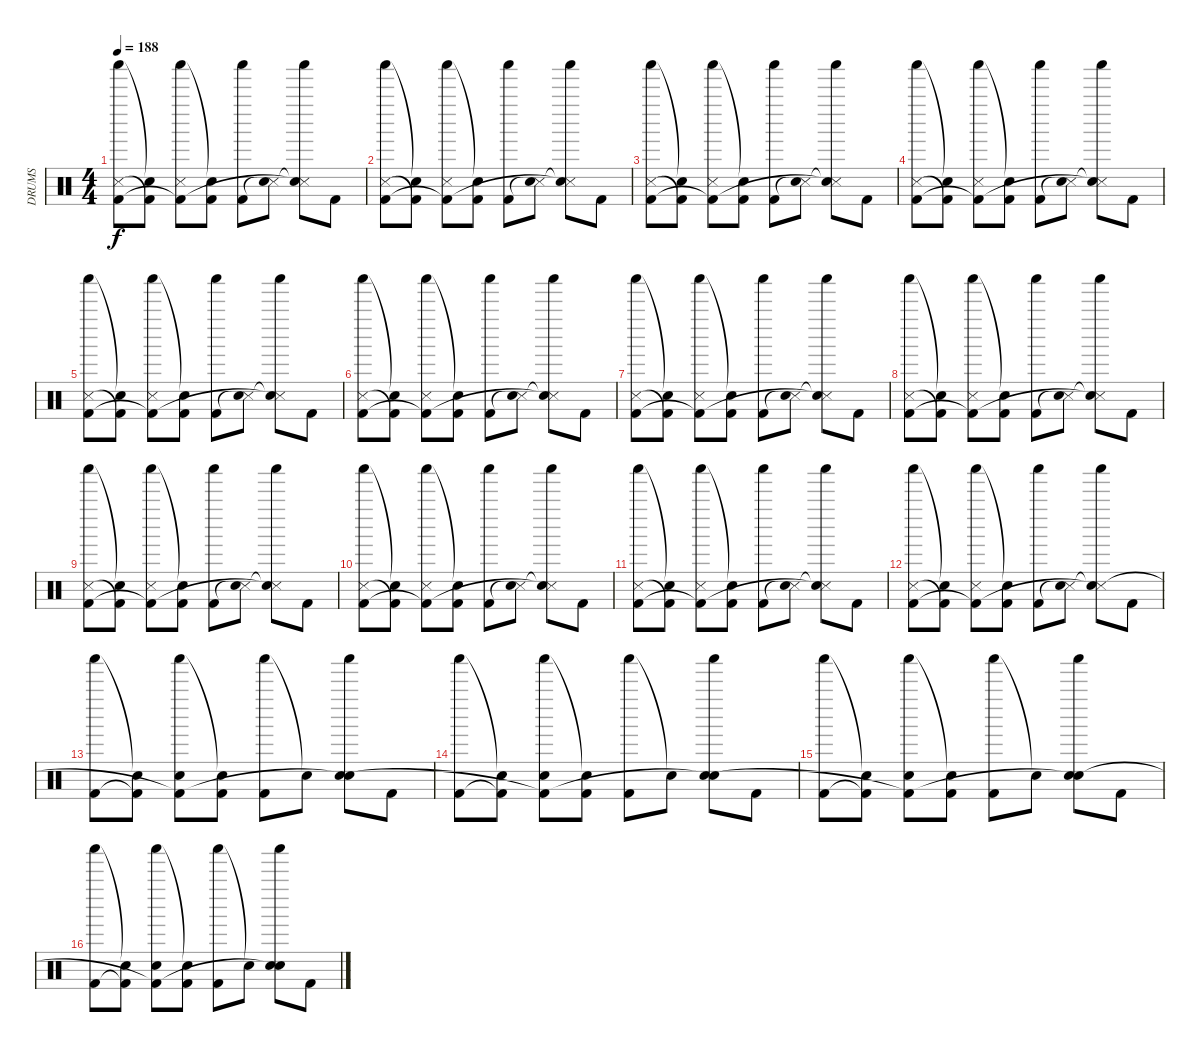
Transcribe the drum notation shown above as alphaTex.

\track ("DRUMS" "DRUMS") {instrument percussion}
\staff {score}
\articulation defaults
\ts (4 4)
\tempo 188
\clef neutral
\ks c
("Shaker (hit)" "Snare (side stick) 3" "Kick (hit) 2").8{dy f} ("Snare (hit)"{t} "Kick (hit) 2"{t}).8 ("Shaker (hit)" "Snare (side stick) 3" "Kick (hit) 2"{t}).8 ("Snare (hit)"{t} "Kick (hit) 2").8 ("Shaker (hit)" "Kick (hit) 2").8 ("Snare (side stick) 3" "Snare (hit)"{t}).8 ("Shaker (hit)" "Snare (side stick) 3"{t} "Snare (hit)"{t}).8 "Kick (hit) 2".8 |
("Shaker (hit)" "Snare (side stick) 3" "Kick (hit) 2").8 ("Snare (hit)"{t} "Kick (hit) 2"{t}).8 ("Shaker (hit)" "Snare (side stick) 3" "Kick (hit) 2"{t}).8 ("Snare (hit)"{t} "Kick (hit) 2").8 ("Shaker (hit)" "Kick (hit) 2").8 ("Snare (side stick) 3" "Snare (hit)"{t}).8 ("Shaker (hit)" "Snare (side stick) 3"{t} "Snare (hit)"{t}).8 "Kick (hit) 2".8 |
("Shaker (hit)" "Snare (side stick) 3" "Kick (hit) 2").8 ("Snare (hit)"{t} "Kick (hit) 2"{t}).8 ("Shaker (hit)" "Snare (side stick) 3" "Kick (hit) 2"{t}).8 ("Snare (hit)"{t} "Kick (hit) 2").8 ("Shaker (hit)" "Kick (hit) 2").8 ("Snare (side stick) 3" "Snare (hit)"{t}).8 ("Shaker (hit)" "Snare (side stick) 3"{t} "Snare (hit)"{t}).8 "Kick (hit) 2".8 |
("Shaker (hit)" "Snare (side stick) 3" "Kick (hit) 2").8 ("Snare (hit)"{t} "Kick (hit) 2"{t}).8 ("Shaker (hit)" "Snare (side stick) 3" "Kick (hit) 2"{t}).8 ("Snare (hit)"{t} "Kick (hit) 2").8 ("Shaker (hit)" "Kick (hit) 2").8 ("Snare (side stick) 3" "Snare (hit)"{t}).8 ("Shaker (hit)" "Snare (side stick) 3"{t} "Snare (hit)"{t}).8 "Kick (hit) 2".8 |
("Shaker (hit)" "Snare (side stick) 3" "Kick (hit) 2").8 ("Snare (hit)"{t} "Kick (hit) 2"{t}).8 ("Shaker (hit)" "Snare (side stick) 3" "Kick (hit) 2"{t}).8 ("Snare (hit)"{t} "Kick (hit) 2").8 ("Shaker (hit)" "Kick (hit) 2").8 ("Snare (side stick) 3" "Snare (hit)"{t}).8 ("Shaker (hit)" "Snare (side stick) 3"{t} "Snare (hit)"{t}).8 "Kick (hit) 2".8 |
("Shaker (hit)" "Snare (side stick) 3" "Kick (hit) 2").8 ("Snare (hit)"{t} "Kick (hit) 2"{t}).8 ("Shaker (hit)" "Snare (side stick) 3" "Kick (hit) 2"{t}).8 ("Snare (hit)"{t} "Kick (hit) 2").8 ("Shaker (hit)" "Kick (hit) 2").8 ("Snare (side stick) 3" "Snare (hit)"{t}).8 ("Shaker (hit)" "Snare (side stick) 3"{t} "Snare (hit)"{t}).8 "Kick (hit) 2".8 |
("Shaker (hit)" "Snare (side stick) 3" "Kick (hit) 2").8 ("Snare (hit)"{t} "Kick (hit) 2"{t}).8 ("Shaker (hit)" "Snare (side stick) 3" "Kick (hit) 2"{t}).8 ("Snare (hit)"{t} "Kick (hit) 2").8 ("Shaker (hit)" "Kick (hit) 2").8 ("Snare (side stick) 3" "Snare (hit)"{t}).8 ("Shaker (hit)" "Snare (side stick) 3"{t} "Snare (hit)"{t}).8 "Kick (hit) 2".8 |
("Shaker (hit)" "Snare (side stick) 3" "Kick (hit) 2").8 ("Snare (hit)"{t} "Kick (hit) 2"{t}).8 ("Shaker (hit)" "Snare (side stick) 3" "Kick (hit) 2"{t}).8 ("Snare (hit)"{t} "Kick (hit) 2").8 ("Shaker (hit)" "Kick (hit) 2").8 ("Snare (side stick) 3" "Snare (hit)"{t}).8 ("Shaker (hit)" "Snare (side stick) 3"{t} "Snare (hit)"{t}).8 "Kick (hit) 2".8 |
("Shaker (hit)" "Snare (side stick) 3" "Kick (hit) 2").8 ("Snare (hit)"{t} "Kick (hit) 2"{t}).8 ("Shaker (hit)" "Snare (side stick) 3" "Kick (hit) 2"{t}).8 ("Snare (hit)"{t} "Kick (hit) 2").8 ("Shaker (hit)" "Kick (hit) 2").8 ("Snare (side stick) 3" "Snare (hit)"{t}).8 ("Shaker (hit)" "Snare (side stick) 3"{t} "Snare (hit)"{t}).8 "Kick (hit) 2".8 |
("Shaker (hit)" "Snare (side stick) 3" "Kick (hit) 2").8 ("Snare (hit)"{t} "Kick (hit) 2"{t}).8 ("Shaker (hit)" "Snare (side stick) 3" "Kick (hit) 2"{t}).8 ("Snare (hit)"{t} "Kick (hit) 2").8 ("Shaker (hit)" "Kick (hit) 2").8 ("Snare (side stick) 3" "Snare (hit)"{t}).8 ("Shaker (hit)" "Snare (side stick) 3"{t} "Snare (hit)"{t}).8 "Kick (hit) 2".8 |
("Shaker (hit)" "Snare (side stick) 3" "Kick (hit) 2").8 ("Snare (hit)"{t} "Kick (hit) 2"{t}).8 ("Shaker (hit)" "Snare (side stick) 3" "Kick (hit) 2"{t}).8 ("Snare (hit)"{t} "Kick (hit) 2").8 ("Shaker (hit)" "Kick (hit) 2").8 ("Snare (side stick) 3" "Snare (hit)"{t}).8 ("Shaker (hit)" "Snare (side stick) 3"{t} "Snare (hit)"{t}).8 "Kick (hit) 2".8 |
("Shaker (hit)" "Snare (side stick) 3" "Kick (hit) 2").8 ("Snare (hit)"{t} "Kick (hit) 2"{t}).8 ("Shaker (hit)" "Snare (side stick) 3" "Kick (hit) 2"{t}).8 ("Snare (hit)"{t} "Kick (hit) 2").8 ("Shaker (hit)" "Kick (hit) 2").8 ("Snare (side stick) 3" "Snare (hit)"{t}).8 ("Shaker (hit)" "Snare (side stick) 3"{t} "Snare (hit)"{t}).8 "Kick (hit) 2".8 |
("Shaker (hit)" "Kick (hit) 2").8 ("Snare (hit)"{t} "Kick (hit) 2"{t}).8 ("Shaker (hit)" "Snare (hit) 2" "Kick (hit) 2"{t}).8 ("Snare (hit)"{t} "Kick (hit) 2").8 ("Shaker (hit)" "Kick (hit) 2").8 "Snare (hit)"{t}.8 ("Shaker (hit)" "Snare (hit) 2" "Snare (hit)"{t}).8 "Kick (hit) 2".8 |
("Shaker (hit)" "Kick (hit) 2").8 ("Snare (hit)"{t} "Kick (hit) 2"{t}).8 ("Shaker (hit)" "Snare (hit) 2" "Kick (hit) 2"{t}).8 ("Snare (hit)"{t} "Kick (hit) 2").8 ("Shaker (hit)" "Kick (hit) 2").8 "Snare (hit)"{t}.8 ("Shaker (hit)" "Snare (hit) 2" "Snare (hit)"{t}).8 "Kick (hit) 2".8 |
("Shaker (hit)" "Kick (hit) 2").8 ("Snare (hit)"{t} "Kick (hit) 2"{t}).8 ("Shaker (hit)" "Snare (hit) 2" "Kick (hit) 2"{t}).8 ("Snare (hit)"{t} "Kick (hit) 2").8 ("Shaker (hit)" "Kick (hit) 2").8 "Snare (hit)"{t}.8 ("Shaker (hit)" "Snare (hit) 2" "Snare (hit)"{t}).8 "Kick (hit) 2".8 |
("Shaker (hit)" "Kick (hit) 2").8 ("Snare (hit)"{t} "Kick (hit) 2"{t}).8 ("Shaker (hit)" "Snare (hit) 2" "Kick (hit) 2"{t}).8 ("Snare (hit)"{t} "Kick (hit) 2").8 ("Shaker (hit)" "Kick (hit) 2").8 "Snare (hit)"{t}.8 ("Shaker (hit)" "Snare (hit) 2" "Snare (hit)"{t}).8 "Kick (hit) 2".8
